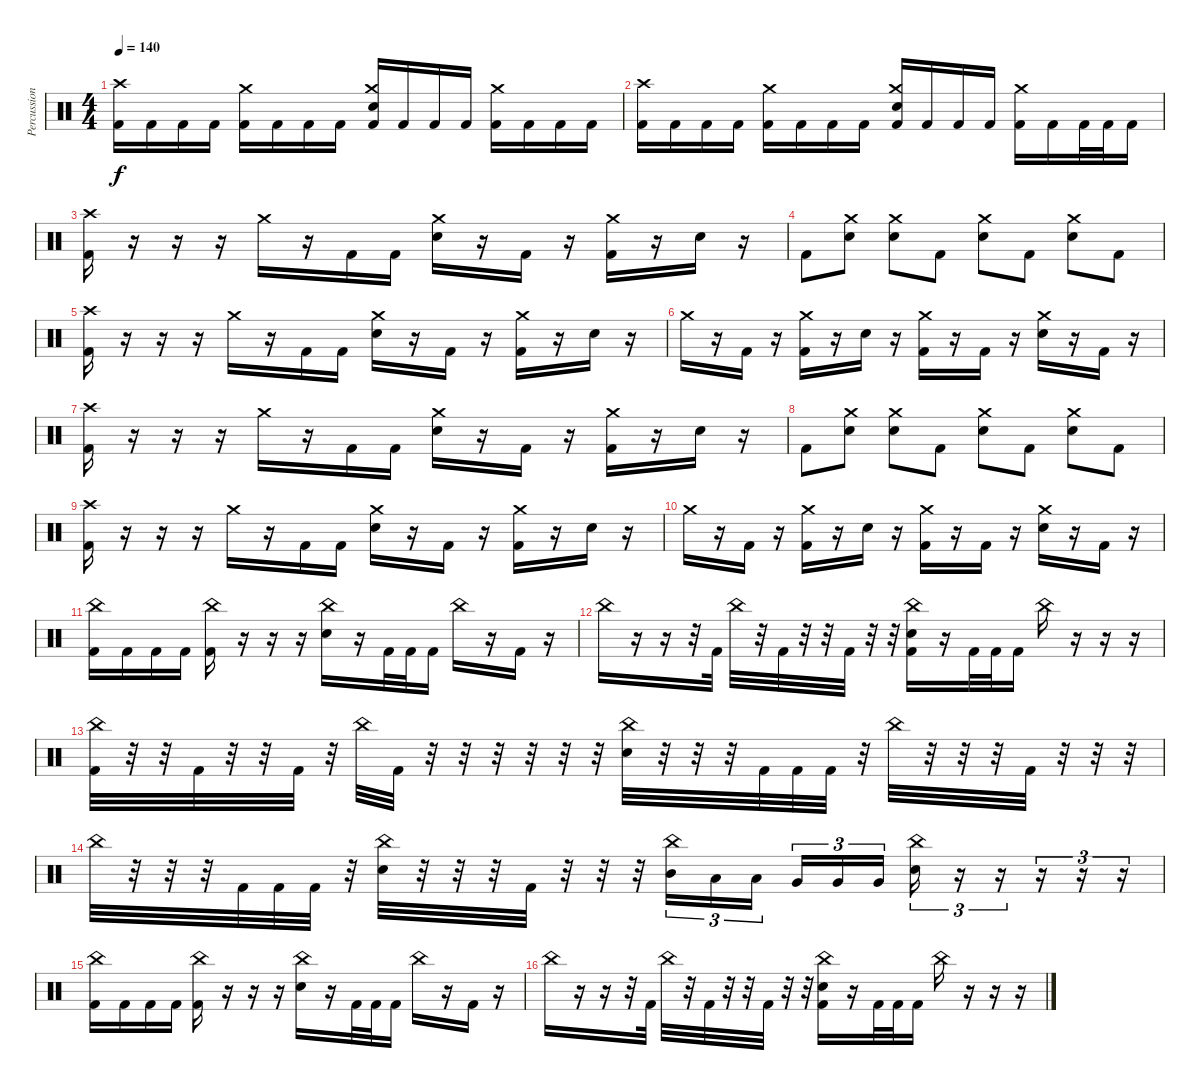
\track ("Percussion" "Percussion") {instrument percussion}
\staff {score}
\articulation defaults
\ts (4 4)
\tempo 140
\clef neutral
\ks c
("Crash high (hit)" "Kick (hit) 2").16{dy f} "Kick (hit) 2".16 "Kick (hit) 2".16 "Kick (hit) 2".16 ("Crash medium (hit)" "Kick (hit) 2").16 "Kick (hit) 2".16 "Kick (hit) 2".16 "Kick (hit) 2".16 ("Crash medium (hit)" "Snare (hit) 2" "Kick (hit) 2").16 "Kick (hit) 2".16 "Kick (hit) 2".16 "Kick (hit) 2".16 ("Crash medium (hit)" "Kick (hit) 2").16 "Kick (hit) 2".16 "Kick (hit) 2".16 "Kick (hit) 2".16 |
("Crash high (hit)" "Kick (hit) 2").16 "Kick (hit) 2".16 "Kick (hit) 2".16 "Kick (hit) 2".16 ("Crash medium (hit)" "Kick (hit) 2").16 "Kick (hit) 2".16 "Kick (hit) 2".16 "Kick (hit) 2".16 ("Crash medium (hit)" "Snare (hit) 2" "Kick (hit) 2").16 "Kick (hit) 2".16 "Kick (hit) 2".16 "Kick (hit) 2".16 ("Crash medium (hit)" "Kick (hit) 2").16 "Kick (hit) 2".16 "Kick (hit) 2".32 "Kick (hit) 2".32 "Kick (hit) 2".16 |
("Crash high (hit)" "Kick (hit) 2").16 r.16 r.16 r.16 "Crash medium (hit)".16 r.16 "Kick (hit) 2".16 "Kick (hit) 2".16 ("Crash medium (hit)" "Snare (hit) 2").16 r.16 "Kick (hit) 2".16 r.16 ("Crash medium (hit)" "Kick (hit) 2").16 r.16 "Snare (hit) 2".16 r.16 |
"Kick (hit) 2".8 ("Crash medium (hit)" "Snare (hit) 2").8 ("Crash medium (hit)" "Snare (hit) 2").8 "Kick (hit) 2".8 ("Crash medium (hit)" "Snare (hit) 2").8 "Kick (hit) 2".8 ("Crash medium (hit)" "Snare (hit) 2").8 "Kick (hit) 2".8 |
("Crash high (hit)" "Kick (hit) 2").16 r.16 r.16 r.16 "Crash medium (hit)".16 r.16 "Kick (hit) 2".16 "Kick (hit) 2".16 ("Crash medium (hit)" "Snare (hit) 2").16 r.16 "Kick (hit) 2".16 r.16 ("Crash medium (hit)" "Kick (hit) 2").16 r.16 "Snare (hit) 2".16 r.16 |
"Crash medium (hit)".16 r.16 "Kick (hit) 2".16 r.16 ("Crash medium (hit)" "Kick (hit) 2").16 r.16 "Snare (hit) 2".16 r.16 ("Crash medium (hit)" "Kick (hit) 2").16 r.16 "Kick (hit) 2".16 r.16 ("Crash medium (hit)" "Snare (hit) 2").16 r.16 "Kick (hit) 2".16 r.16 |
("Crash high (hit)" "Kick (hit) 2").16 r.16 r.16 r.16 "Crash medium (hit)".16 r.16 "Kick (hit) 2".16 "Kick (hit) 2".16 ("Crash medium (hit)" "Snare (hit) 2").16 r.16 "Kick (hit) 2".16 r.16 ("Crash medium (hit)" "Kick (hit) 2").16 r.16 "Snare (hit) 2".16 r.16 |
"Kick (hit) 2".8 ("Crash medium (hit)" "Snare (hit) 2").8 ("Crash medium (hit)" "Snare (hit) 2").8 "Kick (hit) 2".8 ("Crash medium (hit)" "Snare (hit) 2").8 "Kick (hit) 2".8 ("Crash medium (hit)" "Snare (hit) 2").8 "Kick (hit) 2".8 |
("Crash high (hit)" "Kick (hit) 2").16 r.16 r.16 r.16 "Crash medium (hit)".16 r.16 "Kick (hit) 2".16 "Kick (hit) 2".16 ("Crash medium (hit)" "Snare (hit) 2").16 r.16 "Kick (hit) 2".16 r.16 ("Crash medium (hit)" "Kick (hit) 2").16 r.16 "Snare (hit) 2".16 r.16 |
"Crash medium (hit)".16 r.16 "Kick (hit) 2".16 r.16 ("Crash medium (hit)" "Kick (hit) 2").16 r.16 "Snare (hit) 2".16 r.16 ("Crash medium (hit)" "Kick (hit) 2").16 r.16 "Kick (hit) 2".16 r.16 ("Crash medium (hit)" "Snare (hit) 2").16 r.16 "Kick (hit) 2".16 r.16 |
("China (hit)" "Kick (hit) 2").16 "Kick (hit) 2".16 "Kick (hit) 2".16 "Kick (hit) 2".16 ("China (hit)" "Kick (hit) 2").16 r.16 r.16 r.16 ("China (hit)" "Snare (hit) 2").16 r.16 "Kick (hit) 2".32 "Kick (hit) 2".32 "Kick (hit) 2".16 "China (hit)".16 r.16 "Kick (hit) 2".16 r.16 |
"China (hit)".16 r.16 r.16 r.32 "Kick (hit) 2".32 "China (hit)".32 r.32 "Kick (hit) 2".32 r.32 r.32 "Kick (hit) 2".32 r.32 r.32 ("China (hit)" "Snare (hit) 2" "Kick (hit) 2").16 r.16 "Kick (hit) 2".32 "Kick (hit) 2".32 "Kick (hit) 2".16 "China (hit)".16 r.16 r.16 r.16 |
("China (hit)" "Kick (hit) 2").32 r.32 r.32 "Kick (hit) 2".32 r.32 r.32 "Kick (hit) 2".32 r.32 "China (hit)".32 "Kick (hit) 2".32 r.32 r.32 r.32 r.32 r.32 r.32 ("China (hit)" "Snare (hit) 2").32 r.32 r.32 r.32 "Kick (hit) 2".32 "Kick (hit) 2".32 "Kick (hit) 2".32 r.32 "China (hit)".32 r.32 r.32 r.32 "Kick (hit) 2".32 r.32 r.32 r.32 |
"China (hit)".32 r.32 r.32 r.32 "Kick (hit) 2".32 "Kick (hit) 2".32 "Kick (hit) 2".32 r.32 ("China (hit)" "Snare (hit) 2").32 r.32 r.32 r.32 "Kick (hit) 2".32 r.32 r.32 r.32 ("China (hit)" "Mid Tom (hit)").16{tu (3 2)} "Low Tom (hit)".16{tu (3 2)} "Low Tom (hit)".16{tu (3 2) beam splitsecondary} "Very Low Tom (hit)".16{tu (3 2)} "Very Low Tom (hit)".16{tu (3 2)} "Very Low Tom (hit)".16{tu (3 2)} ("China (hit)" "Snare (hit) 2").16{tu (3 2)} r.16{tu (3 2)} r.16{tu (3 2)} r.16{tu (3 2)} r.16{tu (3 2)} r.16{tu (3 2)} |
("China (hit)" "Kick (hit) 2").16 "Kick (hit) 2".16 "Kick (hit) 2".16 "Kick (hit) 2".16 ("China (hit)" "Kick (hit) 2").16 r.16 r.16 r.16 ("China (hit)" "Snare (hit) 2").16 r.16 "Kick (hit) 2".32 "Kick (hit) 2".32 "Kick (hit) 2".16 "China (hit)".16 r.16 "Kick (hit) 2".16 r.16 |
"China (hit)".16 r.16 r.16 r.32 "Kick (hit) 2".32 "China (hit)".32 r.32 "Kick (hit) 2".32 r.32 r.32 "Kick (hit) 2".32 r.32 r.32 ("China (hit)" "Snare (hit) 2" "Kick (hit) 2").16 r.16 "Kick (hit) 2".32 "Kick (hit) 2".32 "Kick (hit) 2".16 "China (hit)".16 r.16 r.16 r.16
